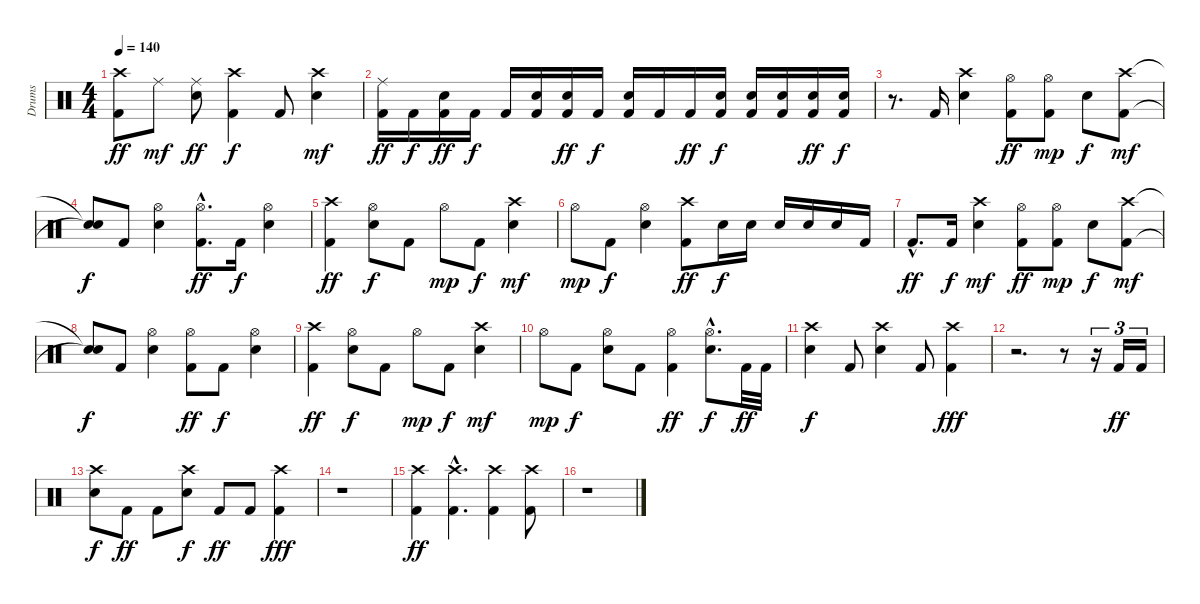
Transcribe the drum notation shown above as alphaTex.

\track ("Drums" "Drums") {instrument percussion}
\staff {score}
\articulation defaults
\ts (4 4)
\tempo 140
\clef neutral
\ks c
("Crash high (hit)" "Kick (hit) 2").8{dy ff} "Ride (middle)".8{dy mf} ("Ride (middle)" "Electric Snare (hit)").8{dy ff} ("Crash high (hit)" "Kick (hit) 2").4{dy f} "Kick (hit) 2".8 ("Crash high (hit)" "Electric Snare (hit)").4{dy mf} |
("Ride (middle)" "Kick (hit) 2").16{dy ff} "Kick (hit) 2".16{dy f} ("Electric Snare (hit)" "Kick (hit) 2").16{dy ff} "Kick (hit) 2".16{dy f} "Kick (hit) 2".16 ("Electric Snare (hit)" "Kick (hit) 2").16 ("Electric Snare (hit)" "Kick (hit) 2").16{dy ff} "Kick (hit) 2".16{dy f} ("Electric Snare (hit)" "Kick (hit) 2").16 "Kick (hit) 2".16 "Kick (hit) 2".16{dy ff} ("Electric Snare (hit)" "Kick (hit) 2").16{dy f} ("Electric Snare (hit)" "Kick (hit) 2").16 ("Electric Snare (hit)" "Kick (hit) 2").16 ("Electric Snare (hit)" "Kick (hit) 2").16{dy ff} ("Electric Snare (hit)" "Kick (hit) 2").16{dy f} |
r.8{d} "Kick (hit) 2".16 ("Crash high (hit)" "Electric Snare (hit)").4 ("Hi-Hat (open)" "Kick (hit) 2").8{dy ff} ("Hi-Hat (open)" "Kick (hit) 2").8{dy mp} "Electric Snare (hit)".8{dy f} ("Crash high (hit)" "Kick (hit) 2").8{dy mf} |
("Snare (hit)"{t} "Snare (hit)"{t}).8{dy f} "Kick (hit) 2".8 ("Hi-Hat (open)" "Electric Snare (hit)").4 ("Hi-Hat (open)"{hac} "Kick (hit) 2"{hac}).8{d dy ff} "Kick (hit) 2".16{dy f} ("Hi-Hat (open)" "Electric Snare (hit)").4 |
("Crash high (hit)" "Kick (hit) 2").4{dy ff} ("Hi-Hat (open)" "Electric Snare (hit)").8{dy f} "Kick (hit) 2".8 "Hi-Hat (open)".8{dy mp} "Kick (hit) 2".8{dy f} ("Crash high (hit)" "Electric Snare (hit)").4{dy mf} |
"Hi-Hat (open)".8{dy mp} "Kick (hit) 2".8{dy f} ("Hi-Hat (open)" "Electric Snare (hit)").4 ("Crash high (hit)" "Kick (hit) 2").8{dy ff} "Electric Snare (hit)".16{dy f} "Electric Snare (hit)".16 "Electric Snare (hit)".16 "Electric Snare (hit)".16 "Electric Snare (hit)".16 "Kick (hit) 2".16 |
"Kick (hit) 2"{hac}.8{d dy ff} "Kick (hit) 2".16{dy f} ("Crash high (hit)" "Electric Snare (hit)").4{dy mf} ("Hi-Hat (open)" "Kick (hit) 2").8{dy ff} ("Hi-Hat (open)" "Kick (hit) 2").8{dy mp} "Electric Snare (hit)".8{dy f} ("Crash high (hit)" "Kick (hit) 2").8{dy mf} |
("Snare (hit)"{t} "Snare (hit)"{t}).8{dy f} "Kick (hit) 2".8 ("Hi-Hat (open)" "Electric Snare (hit)").4 ("Hi-Hat (open)" "Kick (hit) 2").8{dy ff} "Kick (hit) 2".8{dy f} ("Hi-Hat (open)" "Electric Snare (hit)").4 |
("Crash high (hit)" "Kick (hit) 2").4{dy ff} ("Hi-Hat (open)" "Electric Snare (hit)").8{dy f} "Kick (hit) 2".8 "Hi-Hat (open)".8{dy mp} "Kick (hit) 2".8{dy f} ("Crash high (hit)" "Electric Snare (hit)").4{dy mf} |
"Hi-Hat (open)".8{dy mp} "Kick (hit) 2".8{dy f} ("Hi-Hat (open)" "Electric Snare (hit)").8 "Kick (hit) 2".8 ("Hi-Hat (open)" "Kick (hit) 2").4{dy ff} ("Hi-Hat (open)"{hac} "Electric Snare (hit)"{hac}).8{d dy f} "Kick (hit) 2".32{dy ff} "Kick (hit) 2".32 |
("Crash high (hit)" "Electric Snare (hit)").4{dy f} "Kick (hit) 2".8 ("Crash high (hit)" "Electric Snare (hit)").4 "Kick (hit) 2".8 ("Crash high (hit)" "Kick (hit) 2").4{dy fff} |
r.2{d} r.8 r.16{tu (3 2)} "Kick (hit) 2".16{tu (3 2) dy ff} "Kick (hit) 2".16{tu (3 2)} |
("Crash high (hit)" "Electric Snare (hit)").8{dy f} "Kick (hit) 2".8{dy ff} "Kick (hit) 2".8 ("Crash high (hit)" "Electric Snare (hit)").8{dy f} "Kick (hit) 2".8{dy ff} "Kick (hit) 2".8 ("Crash high (hit)" "Kick (hit) 2").4{dy fff} |
r.1 |
("Crash high (hit)" "Kick (hit) 2").4{dy ff} ("Crash high (hit)"{hac} "Kick (hit) 2"{hac}).4{d} ("Crash high (hit)" "Kick (hit) 2").4 ("Crash high (hit)" "Kick (hit) 2").8 |
r.1
